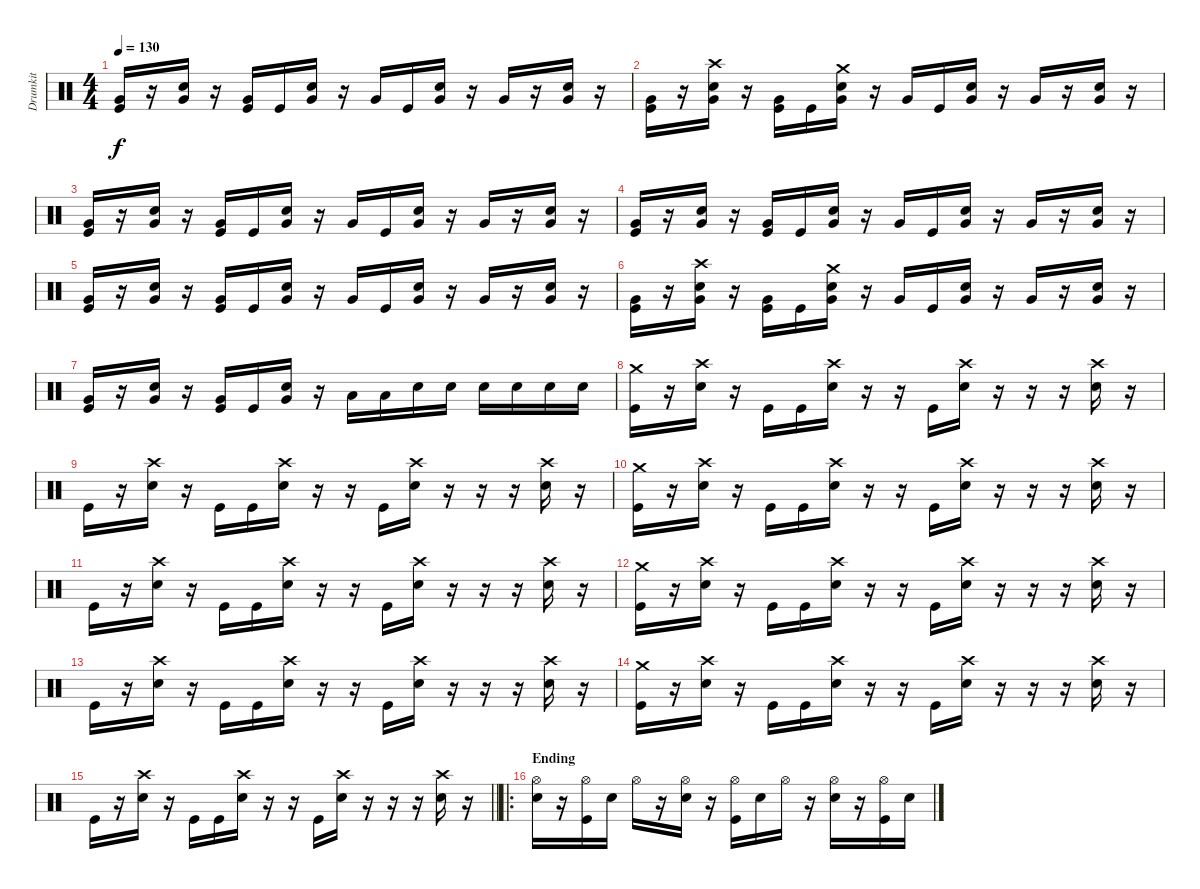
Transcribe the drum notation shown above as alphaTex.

\track ("Drumkit" "Drumkit") {instrument percussion}
\staff {score}
\articulation defaults
\ts (4 4)
\tempo 130
\clef neutral
\ks c
("Kick (hit)" "Very Low Tom (hit)").16{dy f} r.16 ("Snare (hit) 2" "Very Low Tom (hit)").16 r.16 ("Kick (hit)" "Very Low Tom (hit)").16 "Kick (hit)".16 ("Snare (hit) 2" "Very Low Tom (hit)").16 r.16 "Very Low Tom (hit)".16 "Kick (hit)".16 ("Snare (hit) 2" "Very Low Tom (hit)").16 r.16 "Very Low Tom (hit)".16 r.16 ("Snare (hit) 2" "Very Low Tom (hit)").16 r.16 |
("Kick (hit)" "Very Low Tom (hit)").16 r.16 ("Snare (hit) 2" "Very Low Tom (hit)" "Crash high (hit)").16 r.16 ("Kick (hit)" "Very Low Tom (hit)").16 "Kick (hit)".16 ("Snare (hit) 2" "Very Low Tom (hit)" "Crash medium (hit)").16 r.16 "Very Low Tom (hit)".16 "Kick (hit)".16 ("Snare (hit) 2" "Very Low Tom (hit)").16 r.16 "Very Low Tom (hit)".16 r.16 ("Snare (hit) 2" "Very Low Tom (hit)").16 r.16 |
("Kick (hit)" "Very Low Tom (hit)").16 r.16 ("Snare (hit) 2" "Very Low Tom (hit)").16 r.16 ("Kick (hit)" "Very Low Tom (hit)").16 "Kick (hit)".16 ("Snare (hit) 2" "Very Low Tom (hit)").16 r.16 "Very Low Tom (hit)".16 "Kick (hit)".16 ("Snare (hit) 2" "Very Low Tom (hit)").16 r.16 "Very Low Tom (hit)".16 r.16 ("Snare (hit) 2" "Very Low Tom (hit)").16 r.16 |
("Kick (hit)" "Very Low Tom (hit)").16 r.16 ("Snare (hit) 2" "Very Low Tom (hit)").16 r.16 ("Kick (hit)" "Very Low Tom (hit)").16 "Kick (hit)".16 ("Snare (hit) 2" "Very Low Tom (hit)").16 r.16 "Very Low Tom (hit)".16 "Kick (hit)".16 ("Snare (hit) 2" "Very Low Tom (hit)").16 r.16 "Very Low Tom (hit)".16 r.16 ("Snare (hit) 2" "Very Low Tom (hit)").16 r.16 |
("Kick (hit)" "Very Low Tom (hit)").16 r.16 ("Snare (hit) 2" "Very Low Tom (hit)").16 r.16 ("Kick (hit)" "Very Low Tom (hit)").16 "Kick (hit)".16 ("Snare (hit) 2" "Very Low Tom (hit)").16 r.16 "Very Low Tom (hit)".16 "Kick (hit)".16 ("Snare (hit) 2" "Very Low Tom (hit)").16 r.16 "Very Low Tom (hit)".16 r.16 ("Snare (hit) 2" "Very Low Tom (hit)").16 r.16 |
("Kick (hit)" "Very Low Tom (hit)").16 r.16 ("Snare (hit) 2" "Very Low Tom (hit)" "Crash high (hit)").16 r.16 ("Kick (hit)" "Very Low Tom (hit)").16 "Kick (hit)".16 ("Snare (hit) 2" "Very Low Tom (hit)" "Crash medium (hit)").16 r.16 "Very Low Tom (hit)".16 "Kick (hit)".16 ("Snare (hit) 2" "Very Low Tom (hit)").16 r.16 "Very Low Tom (hit)".16 r.16 ("Snare (hit) 2" "Very Low Tom (hit)").16 r.16 |
("Kick (hit)" "Very Low Tom (hit)").16 r.16 ("Snare (hit) 2" "Very Low Tom (hit)").16 r.16 ("Kick (hit)" "Very Low Tom (hit)").16 "Kick (hit)".16 ("Snare (hit) 2" "Very Low Tom (hit)").16 r.16 "Low Tom (hit)".16 "Low Tom (hit)".16 "Snare (hit) 2".16 "Snare (hit) 2".16 "Snare (hit) 2".16 "Snare (hit) 2".16 "Snare (hit) 2".16 "Snare (hit) 2".16 |
("Kick (hit)" "Crash medium (hit)").16 r.16 ("Snare (hit) 2" "Crash high (hit)").16 r.16 "Kick (hit)".16 "Kick (hit)".16 ("Snare (hit) 2" "Crash high (hit)").16 r.16 r.16 "Kick (hit)".16 ("Snare (hit) 2" "Crash high (hit)").16 r.16 r.16 r.16 ("Snare (hit) 2" "Crash high (hit)").16 r.16 |
"Kick (hit)".16 r.16 ("Snare (hit) 2" "Crash high (hit)").16 r.16 "Kick (hit)".16 "Kick (hit)".16 ("Snare (hit) 2" "Crash high (hit)").16 r.16 r.16 "Kick (hit)".16 ("Snare (hit) 2" "Crash high (hit)").16 r.16 r.16 r.16 ("Snare (hit) 2" "Crash high (hit)").16 r.16 |
("Kick (hit)" "Crash medium (hit)").16 r.16 ("Snare (hit) 2" "Crash high (hit)").16 r.16 "Kick (hit)".16 "Kick (hit)".16 ("Snare (hit) 2" "Crash high (hit)").16 r.16 r.16 "Kick (hit)".16 ("Snare (hit) 2" "Crash high (hit)").16 r.16 r.16 r.16 ("Snare (hit) 2" "Crash high (hit)").16 r.16 |
"Kick (hit)".16 r.16 ("Snare (hit) 2" "Crash high (hit)").16 r.16 "Kick (hit)".16 "Kick (hit)".16 ("Snare (hit) 2" "Crash high (hit)").16 r.16 r.16 "Kick (hit)".16 ("Snare (hit) 2" "Crash high (hit)").16 r.16 r.16 r.16 ("Snare (hit) 2" "Crash high (hit)").16 r.16 |
("Kick (hit)" "Crash medium (hit)").16 r.16 ("Snare (hit) 2" "Crash high (hit)").16 r.16 "Kick (hit)".16 "Kick (hit)".16 ("Snare (hit) 2" "Crash high (hit)").16 r.16 r.16 "Kick (hit)".16 ("Snare (hit) 2" "Crash high (hit)").16 r.16 r.16 r.16 ("Snare (hit) 2" "Crash high (hit)").16 r.16 |
"Kick (hit)".16 r.16 ("Snare (hit) 2" "Crash high (hit)").16 r.16 "Kick (hit)".16 "Kick (hit)".16 ("Snare (hit) 2" "Crash high (hit)").16 r.16 r.16 "Kick (hit)".16 ("Snare (hit) 2" "Crash high (hit)").16 r.16 r.16 r.16 ("Snare (hit) 2" "Crash high (hit)").16 r.16 |
("Kick (hit)" "Crash medium (hit)").16 r.16 ("Snare (hit) 2" "Crash high (hit)").16 r.16 "Kick (hit)".16 "Kick (hit)".16 ("Snare (hit) 2" "Crash high (hit)").16 r.16 r.16 "Kick (hit)".16 ("Snare (hit) 2" "Crash high (hit)").16 r.16 r.16 r.16 ("Snare (hit) 2" "Crash high (hit)").16 r.16 |
\barLineRight lightlight "Kick (hit)".16
r.16 ("Snare (hit) 2" "Crash high (hit)").16 r.16 "Kick (hit)".16 "Kick (hit)".16 ("Snare (hit) 2" "Crash high (hit)").16 r.16 r.16 "Kick (hit)".16 ("Snare (hit) 2" "Crash high (hit)").16 r.16 r.16 r.16 ("Snare (hit) 2" "Crash high (hit)").16 r.16 |
\ro
\section ("" "Ending")
("Hi-Hat (open)" "Snare (hit) 2").16 r.16 ("Hi-Hat (open)" "Kick (hit)").16 "Snare (hit) 2".16 "Hi-Hat (open)".16 r.16 ("Hi-Hat (open)" "Snare (hit) 2").16 r.16 ("Hi-Hat (open)" "Kick (hit)").16 "Snare (hit) 2".16 "Hi-Hat (open)".16 r.16 ("Hi-Hat (open)" "Snare (hit) 2").16 r.16 ("Hi-Hat (open)" "Kick (hit)").16 "Snare (hit) 2".16
